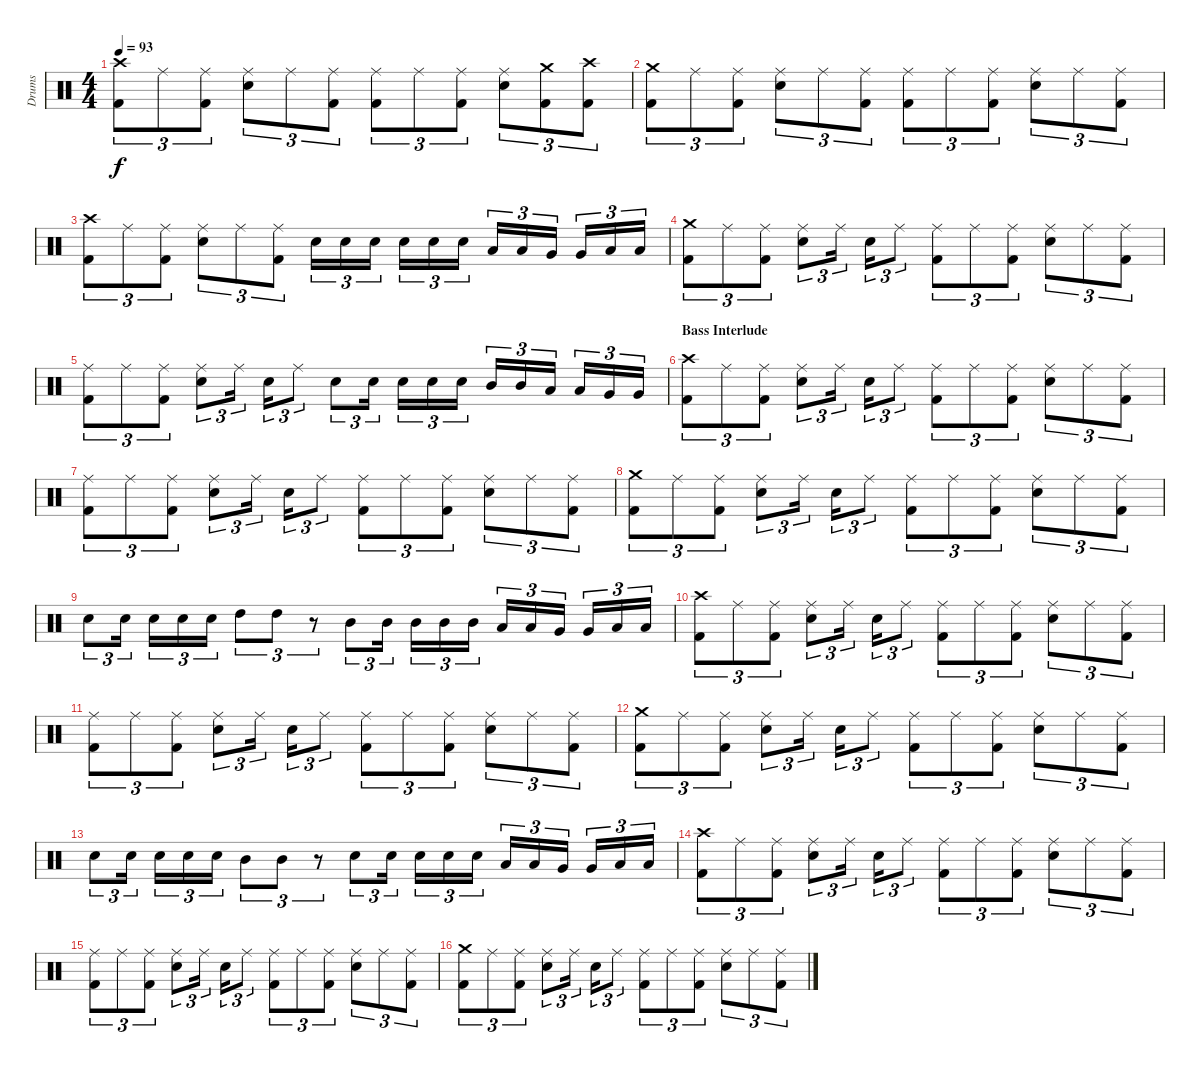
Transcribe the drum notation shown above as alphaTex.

\track ("Drums" "Drums") {instrument percussion}
\staff {score}
\articulation defaults
\ts (4 4)
\tempo 93
\clef neutral
\ks c
("Crash high (hit)" "Kick (hit) 2").8{tu (3 2) dy f} "Ride (middle)".8{tu (3 2)} ("Ride (middle)" "Kick (hit) 2").8{tu (3 2)} ("Ride (middle)" "Snare (hit) 2").8{tu (3 2)} "Ride (middle)".8{tu (3 2)} ("Ride (middle)" "Kick (hit) 2").8{tu (3 2)} ("Ride (middle)" "Kick (hit) 2").8{tu (3 2)} "Ride (middle)".8{tu (3 2)} ("Ride (middle)" "Kick (hit) 2").8{tu (3 2)} ("Ride (middle)" "Snare (hit) 2").8{tu (3 2)} ("Crash medium (hit)" "Kick (hit) 2").8{tu (3 2)} ("Crash high (hit)" "Kick (hit) 2").8{tu (3 2)} |
("Crash medium (hit)" "Kick (hit) 2").8{tu (3 2)} "Ride (middle)".8{tu (3 2)} ("Ride (middle)" "Kick (hit) 2").8{tu (3 2)} ("Ride (middle)" "Snare (hit) 2").8{tu (3 2)} "Ride (middle)".8{tu (3 2)} ("Ride (middle)" "Kick (hit) 2").8{tu (3 2)} ("Ride (middle)" "Kick (hit) 2").8{tu (3 2)} "Ride (middle)".8{tu (3 2)} ("Ride (middle)" "Kick (hit) 2").8{tu (3 2)} ("Ride (middle)" "Snare (hit) 2").8{tu (3 2)} "Ride (middle)".8{tu (3 2)} ("Ride (middle)" "Kick (hit) 2").8{tu (3 2)} |
("Crash high (hit)" "Kick (hit) 2").8{tu (3 2)} "Ride (middle)".8{tu (3 2)} ("Ride (middle)" "Kick (hit) 2").8{tu (3 2)} ("Ride (middle)" "Snare (hit) 2").8{tu (3 2)} "Ride (middle)".8{tu (3 2)} ("Ride (middle)" "Kick (hit) 2").8{tu (3 2)} "Snare (hit) 2".16{tu (3 2)} "Snare (hit) 2".16{tu (3 2)} "Snare (hit) 2".16{tu (3 2)} "Snare (hit) 2".16{tu (3 2)} "Snare (hit) 2".16{tu (3 2)} "Snare (hit) 2".16{tu (3 2)} "Low Tom (hit)".16{tu (3 2)} "Low Tom (hit)".16{tu (3 2)} "Very Low Tom (hit)".16{tu (3 2)} "Very Low Tom (hit)".16{tu (3 2)} "Low Floor Tom (hit)".16{tu (3 2)} "Low Floor Tom (hit)".16{tu (3 2)} |
("Crash medium (hit)" "Kick (hit) 2").8{tu (3 2)} "Ride (middle)".8{tu (3 2)} ("Ride (middle)" "Kick (hit) 2").8{tu (3 2)} ("Ride (middle)" "Snare (hit) 2").8{tu (3 2)} "Ride (middle)".16{tu (3 2)} "Snare (hit) 2".16{tu (3 2)} "Ride (middle)".8{tu (3 2)} ("Ride (middle)" "Kick (hit) 2").8{tu (3 2)} "Ride (middle)".8{tu (3 2)} ("Ride (middle)" "Kick (hit) 2").8{tu (3 2)} ("Ride (middle)" "Snare (hit) 2").8{tu (3 2)} "Ride (middle)".8{tu (3 2)} ("Ride (middle)" "Kick (hit) 2").8{tu (3 2)} |
("Ride (middle)" "Kick (hit) 2").8{tu (3 2)} "Ride (middle)".8{tu (3 2)} ("Ride (middle)" "Kick (hit) 2").8{tu (3 2)} ("Ride (middle)" "Snare (hit) 2").8{tu (3 2)} "Ride (middle)".16{tu (3 2)} "Snare (hit) 2".16{tu (3 2)} "Ride (middle)".8{tu (3 2)} "Snare (hit) 2".8{tu (3 2)} "Snare (hit) 2".16{tu (3 2)} "Snare (hit) 2".16{tu (3 2)} "Snare (hit) 2".16{tu (3 2)} "Snare (hit) 2".16{tu (3 2)} "Mid Tom (hit)".16{tu (3 2)} "Mid Tom (hit)".16{tu (3 2)} "Low Tom (hit)".16{tu (3 2)} "Low Tom (hit)".16{tu (3 2)} "Very Low Tom (hit)".16{tu (3 2)} "Very Low Tom (hit)".16{tu (3 2)} |
\section ("" "Bass Interlude")
("Crash high (hit)" "Kick (hit) 2").8{tu (3 2)} "Ride (middle)".8{tu (3 2)} ("Ride (middle)" "Kick (hit) 2").8{tu (3 2)} ("Ride (middle)" "Snare (hit) 2").8{tu (3 2)} "Ride (middle)".16{tu (3 2)} "Snare (hit) 2".16{tu (3 2)} "Ride (middle)".8{tu (3 2)} ("Ride (middle)" "Kick (hit) 2").8{tu (3 2)} "Ride (middle)".8{tu (3 2)} ("Ride (middle)" "Kick (hit) 2").8{tu (3 2)} ("Ride (middle)" "Snare (hit) 2").8{tu (3 2)} "Ride (middle)".8{tu (3 2)} ("Ride (middle)" "Kick (hit) 2").8{tu (3 2)} |
("Ride (middle)" "Kick (hit) 2").8{tu (3 2)} "Ride (middle)".8{tu (3 2)} ("Ride (middle)" "Kick (hit) 2").8{tu (3 2)} ("Ride (middle)" "Snare (hit) 2").8{tu (3 2)} "Ride (middle)".16{tu (3 2)} "Snare (hit) 2".16{tu (3 2)} "Ride (middle)".8{tu (3 2)} ("Ride (middle)" "Kick (hit) 2").8{tu (3 2)} "Ride (middle)".8{tu (3 2)} ("Ride (middle)" "Kick (hit) 2").8{tu (3 2)} ("Ride (middle)" "Snare (hit) 2").8{tu (3 2)} "Ride (middle)".8{tu (3 2)} ("Ride (middle)" "Kick (hit) 2").8{tu (3 2)} |
("Crash medium (hit)" "Kick (hit) 2").8{tu (3 2)} "Ride (middle)".8{tu (3 2)} ("Ride (middle)" "Kick (hit) 2").8{tu (3 2)} ("Ride (middle)" "Snare (hit) 2").8{tu (3 2)} "Ride (middle)".16{tu (3 2)} "Snare (hit) 2".16{tu (3 2)} "Ride (middle)".8{tu (3 2)} ("Ride (middle)" "Kick (hit) 2").8{tu (3 2)} "Ride (middle)".8{tu (3 2)} ("Ride (middle)" "Kick (hit) 2").8{tu (3 2)} ("Ride (middle)" "Snare (hit) 2").8{tu (3 2)} "Ride (middle)".8{tu (3 2)} ("Ride (middle)" "Kick (hit) 2").8{tu (3 2)} |
"Snare (hit) 2".8{tu (3 2)} "Snare (hit) 2".16{tu (3 2)} "Snare (hit) 2".16{tu (3 2)} "Snare (hit) 2".16{tu (3 2)} "Snare (hit) 2".16{tu (3 2)} "High Tom (hit)".8{tu (3 2)} "High Tom (hit)".8{tu (3 2)} r.8{tu (3 2)} "Mid Tom (hit)".8{tu (3 2)} "Mid Tom (hit)".16{tu (3 2)} "Mid Tom (hit)".16{tu (3 2)} "Mid Tom (hit)".16{tu (3 2)} "Mid Tom (hit)".16{tu (3 2)} "Low Tom (hit)".16{tu (3 2)} "Low Tom (hit)".16{tu (3 2)} "Very Low Tom (hit)".16{tu (3 2)} "Very Low Tom (hit)".16{tu (3 2)} "Low Floor Tom (hit)".16{tu (3 2)} "Low Floor Tom (hit)".16{tu (3 2)} |
("Crash high (hit)" "Kick (hit) 2").8{tu (3 2)} "Ride (middle)".8{tu (3 2)} ("Ride (middle)" "Kick (hit) 2").8{tu (3 2)} ("Ride (middle)" "Snare (hit) 2").8{tu (3 2)} "Ride (middle)".16{tu (3 2)} "Snare (hit) 2".16{tu (3 2)} "Ride (middle)".8{tu (3 2)} ("Ride (middle)" "Kick (hit) 2").8{tu (3 2)} "Ride (middle)".8{tu (3 2)} ("Ride (middle)" "Kick (hit) 2").8{tu (3 2)} ("Ride (middle)" "Snare (hit) 2").8{tu (3 2)} "Ride (middle)".8{tu (3 2)} ("Ride (middle)" "Kick (hit) 2").8{tu (3 2)} |
("Ride (middle)" "Kick (hit) 2").8{tu (3 2)} "Ride (middle)".8{tu (3 2)} ("Ride (middle)" "Kick (hit) 2").8{tu (3 2)} ("Ride (middle)" "Snare (hit) 2").8{tu (3 2)} "Ride (middle)".16{tu (3 2)} "Snare (hit) 2".16{tu (3 2)} "Ride (middle)".8{tu (3 2)} ("Ride (middle)" "Kick (hit) 2").8{tu (3 2)} "Ride (middle)".8{tu (3 2)} ("Ride (middle)" "Kick (hit) 2").8{tu (3 2)} ("Ride (middle)" "Snare (hit) 2").8{tu (3 2)} "Ride (middle)".8{tu (3 2)} ("Ride (middle)" "Kick (hit) 2").8{tu (3 2)} |
("Crash medium (hit)" "Kick (hit) 2").8{tu (3 2)} "Ride (middle)".8{tu (3 2)} ("Ride (middle)" "Kick (hit) 2").8{tu (3 2)} ("Ride (middle)" "Snare (hit) 2").8{tu (3 2)} "Ride (middle)".16{tu (3 2)} "Snare (hit) 2".16{tu (3 2)} "Ride (middle)".8{tu (3 2)} ("Ride (middle)" "Kick (hit) 2").8{tu (3 2)} "Ride (middle)".8{tu (3 2)} ("Ride (middle)" "Kick (hit) 2").8{tu (3 2)} ("Ride (middle)" "Snare (hit) 2").8{tu (3 2)} "Ride (middle)".8{tu (3 2)} ("Ride (middle)" "Kick (hit) 2").8{tu (3 2)} |
"Snare (hit) 2".8{tu (3 2)} "Snare (hit) 2".16{tu (3 2)} "Snare (hit) 2".16{tu (3 2)} "Snare (hit) 2".16{tu (3 2)} "Snare (hit) 2".16{tu (3 2)} "Mid Tom (hit)".8{tu (3 2)} "Mid Tom (hit)".8{tu (3 2)} r.8{tu (3 2)} "Snare (hit) 2".8{tu (3 2)} "Snare (hit) 2".16{tu (3 2)} "Snare (hit) 2".16{tu (3 2)} "Snare (hit) 2".16{tu (3 2)} "Snare (hit) 2".16{tu (3 2)} "Low Tom (hit)".16{tu (3 2)} "Low Tom (hit)".16{tu (3 2)} "Very Low Tom (hit)".16{tu (3 2)} "Very Low Tom (hit)".16{tu (3 2)} "Low Floor Tom (hit)".16{tu (3 2)} "Low Floor Tom (hit)".16{tu (3 2)} |
("Crash high (hit)" "Kick (hit) 2").8{tu (3 2)} "Ride (middle)".8{tu (3 2)} ("Ride (middle)" "Kick (hit) 2").8{tu (3 2)} ("Ride (middle)" "Snare (hit) 2").8{tu (3 2)} "Ride (middle)".16{tu (3 2)} "Snare (hit) 2".16{tu (3 2)} "Ride (middle)".8{tu (3 2)} ("Ride (middle)" "Kick (hit) 2").8{tu (3 2)} "Ride (middle)".8{tu (3 2)} ("Ride (middle)" "Kick (hit) 2").8{tu (3 2)} ("Ride (middle)" "Snare (hit) 2").8{tu (3 2)} "Ride (middle)".8{tu (3 2)} ("Ride (middle)" "Kick (hit) 2").8{tu (3 2)} |
("Ride (middle)" "Kick (hit) 2").8{tu (3 2)} "Ride (middle)".8{tu (3 2)} ("Ride (middle)" "Kick (hit) 2").8{tu (3 2)} ("Ride (middle)" "Snare (hit) 2").8{tu (3 2)} "Ride (middle)".16{tu (3 2)} "Snare (hit) 2".16{tu (3 2)} "Ride (middle)".8{tu (3 2)} ("Ride (middle)" "Kick (hit) 2").8{tu (3 2)} "Ride (middle)".8{tu (3 2)} ("Ride (middle)" "Kick (hit) 2").8{tu (3 2)} ("Ride (middle)" "Snare (hit) 2").8{tu (3 2)} "Ride (middle)".8{tu (3 2)} ("Ride (middle)" "Kick (hit) 2").8{tu (3 2)} |
("Crash medium (hit)" "Kick (hit) 2").8{tu (3 2)} "Ride (middle)".8{tu (3 2)} ("Ride (middle)" "Kick (hit) 2").8{tu (3 2)} ("Ride (middle)" "Snare (hit) 2").8{tu (3 2)} "Ride (middle)".16{tu (3 2)} "Snare (hit) 2".16{tu (3 2)} "Ride (middle)".8{tu (3 2)} ("Ride (middle)" "Kick (hit) 2").8{tu (3 2)} "Ride (middle)".8{tu (3 2)} ("Ride (middle)" "Kick (hit) 2").8{tu (3 2)} ("Ride (middle)" "Snare (hit) 2").8{tu (3 2)} "Ride (middle)".8{tu (3 2)} ("Ride (middle)" "Kick (hit) 2").8{tu (3 2)}
